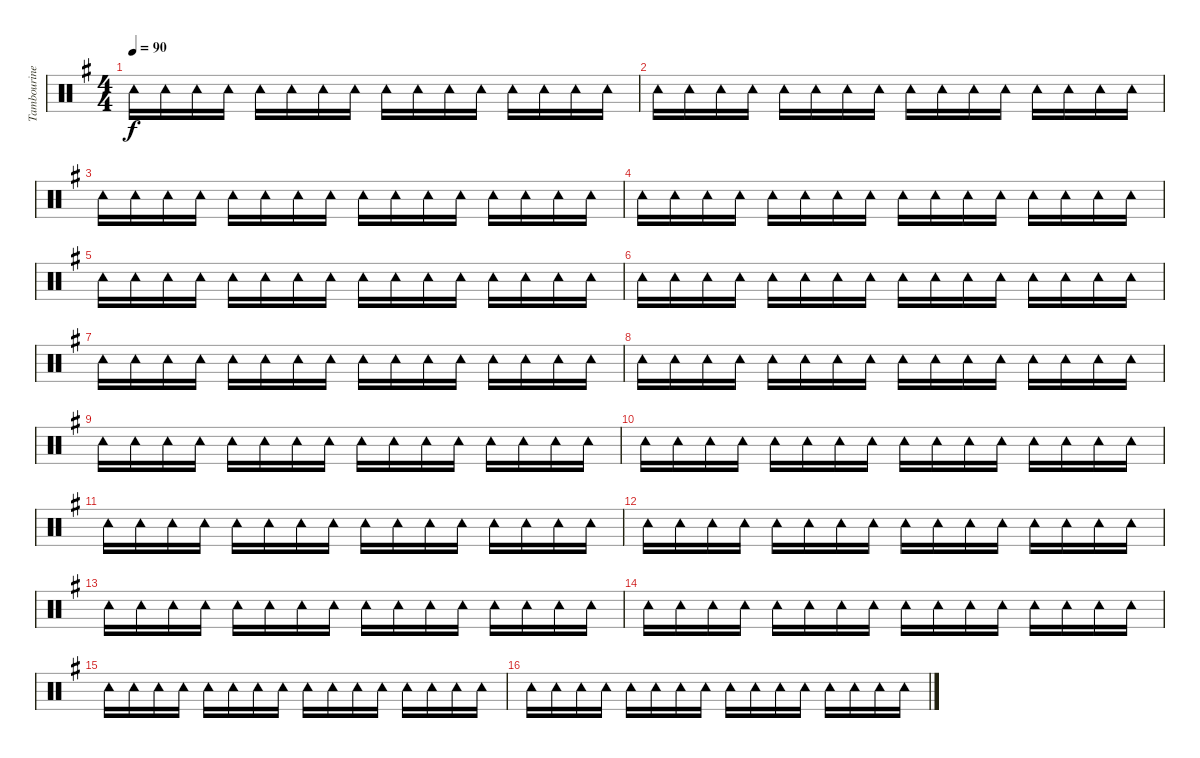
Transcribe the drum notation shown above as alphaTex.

\track ("Tambourine" "Tambourine") {instrument percussion}
\staff {score}
\articulation defaults
\ts (4 4)
\tempo 90
\clef neutral
\ks g "Tambourine (hit)".16{dy f} "Tambourine (hit)".16 "Tambourine (hit)".16 "Tambourine (hit)".16 "Tambourine (hit)".16 "Tambourine (hit)".16 "Tambourine (hit)".16 "Tambourine (hit)".16 "Tambourine (hit)".16 "Tambourine (hit)".16 "Tambourine (hit)".16 "Tambourine (hit)".16 "Tambourine (hit)".16 "Tambourine (hit)".16 "Tambourine (hit)".16 "Tambourine (hit)".16
|
"Tambourine (hit)".16 "Tambourine (hit)".16 "Tambourine (hit)".16 "Tambourine (hit)".16 "Tambourine (hit)".16 "Tambourine (hit)".16 "Tambourine (hit)".16 "Tambourine (hit)".16 "Tambourine (hit)".16 "Tambourine (hit)".16 "Tambourine (hit)".16 "Tambourine (hit)".16 "Tambourine (hit)".16 "Tambourine (hit)".16 "Tambourine (hit)".16 "Tambourine (hit)".16 |
"Tambourine (hit)".16 "Tambourine (hit)".16 "Tambourine (hit)".16 "Tambourine (hit)".16 "Tambourine (hit)".16 "Tambourine (hit)".16 "Tambourine (hit)".16 "Tambourine (hit)".16 "Tambourine (hit)".16 "Tambourine (hit)".16 "Tambourine (hit)".16 "Tambourine (hit)".16 "Tambourine (hit)".16 "Tambourine (hit)".16 "Tambourine (hit)".16 "Tambourine (hit)".16 |
"Tambourine (hit)".16 "Tambourine (hit)".16 "Tambourine (hit)".16 "Tambourine (hit)".16 "Tambourine (hit)".16 "Tambourine (hit)".16 "Tambourine (hit)".16 "Tambourine (hit)".16 "Tambourine (hit)".16 "Tambourine (hit)".16 "Tambourine (hit)".16 "Tambourine (hit)".16 "Tambourine (hit)".16 "Tambourine (hit)".16 "Tambourine (hit)".16 "Tambourine (hit)".16 |
"Tambourine (hit)".16 "Tambourine (hit)".16 "Tambourine (hit)".16 "Tambourine (hit)".16 "Tambourine (hit)".16 "Tambourine (hit)".16 "Tambourine (hit)".16 "Tambourine (hit)".16 "Tambourine (hit)".16 "Tambourine (hit)".16 "Tambourine (hit)".16 "Tambourine (hit)".16 "Tambourine (hit)".16 "Tambourine (hit)".16 "Tambourine (hit)".16 "Tambourine (hit)".16 |
"Tambourine (hit)".16 "Tambourine (hit)".16 "Tambourine (hit)".16 "Tambourine (hit)".16 "Tambourine (hit)".16 "Tambourine (hit)".16 "Tambourine (hit)".16 "Tambourine (hit)".16 "Tambourine (hit)".16 "Tambourine (hit)".16 "Tambourine (hit)".16 "Tambourine (hit)".16 "Tambourine (hit)".16 "Tambourine (hit)".16 "Tambourine (hit)".16 "Tambourine (hit)".16 |
"Tambourine (hit)".16 "Tambourine (hit)".16 "Tambourine (hit)".16 "Tambourine (hit)".16 "Tambourine (hit)".16 "Tambourine (hit)".16 "Tambourine (hit)".16 "Tambourine (hit)".16 "Tambourine (hit)".16 "Tambourine (hit)".16 "Tambourine (hit)".16 "Tambourine (hit)".16 "Tambourine (hit)".16 "Tambourine (hit)".16 "Tambourine (hit)".16 "Tambourine (hit)".16 |
"Tambourine (hit)".16 "Tambourine (hit)".16 "Tambourine (hit)".16 "Tambourine (hit)".16 "Tambourine (hit)".16 "Tambourine (hit)".16 "Tambourine (hit)".16 "Tambourine (hit)".16 "Tambourine (hit)".16 "Tambourine (hit)".16 "Tambourine (hit)".16 "Tambourine (hit)".16 "Tambourine (hit)".16 "Tambourine (hit)".16 "Tambourine (hit)".16 "Tambourine (hit)".16 |
"Tambourine (hit)".16 "Tambourine (hit)".16 "Tambourine (hit)".16 "Tambourine (hit)".16 "Tambourine (hit)".16 "Tambourine (hit)".16 "Tambourine (hit)".16 "Tambourine (hit)".16 "Tambourine (hit)".16 "Tambourine (hit)".16 "Tambourine (hit)".16 "Tambourine (hit)".16 "Tambourine (hit)".16 "Tambourine (hit)".16 "Tambourine (hit)".16 "Tambourine (hit)".16 |
"Tambourine (hit)".16 "Tambourine (hit)".16 "Tambourine (hit)".16 "Tambourine (hit)".16 "Tambourine (hit)".16 "Tambourine (hit)".16 "Tambourine (hit)".16 "Tambourine (hit)".16 "Tambourine (hit)".16 "Tambourine (hit)".16 "Tambourine (hit)".16 "Tambourine (hit)".16 "Tambourine (hit)".16 "Tambourine (hit)".16 "Tambourine (hit)".16 "Tambourine (hit)".16 |
"Tambourine (hit)".16 "Tambourine (hit)".16 "Tambourine (hit)".16 "Tambourine (hit)".16 "Tambourine (hit)".16 "Tambourine (hit)".16 "Tambourine (hit)".16 "Tambourine (hit)".16 "Tambourine (hit)".16 "Tambourine (hit)".16 "Tambourine (hit)".16 "Tambourine (hit)".16 "Tambourine (hit)".16 "Tambourine (hit)".16 "Tambourine (hit)".16 "Tambourine (hit)".16 |
"Tambourine (hit)".16 "Tambourine (hit)".16 "Tambourine (hit)".16 "Tambourine (hit)".16 "Tambourine (hit)".16 "Tambourine (hit)".16 "Tambourine (hit)".16 "Tambourine (hit)".16 "Tambourine (hit)".16 "Tambourine (hit)".16 "Tambourine (hit)".16 "Tambourine (hit)".16 "Tambourine (hit)".16 "Tambourine (hit)".16 "Tambourine (hit)".16 "Tambourine (hit)".16 |
"Tambourine (hit)".16 "Tambourine (hit)".16 "Tambourine (hit)".16 "Tambourine (hit)".16 "Tambourine (hit)".16 "Tambourine (hit)".16 "Tambourine (hit)".16 "Tambourine (hit)".16 "Tambourine (hit)".16 "Tambourine (hit)".16 "Tambourine (hit)".16 "Tambourine (hit)".16 "Tambourine (hit)".16 "Tambourine (hit)".16 "Tambourine (hit)".16 "Tambourine (hit)".16 |
"Tambourine (hit)".16 "Tambourine (hit)".16 "Tambourine (hit)".16 "Tambourine (hit)".16 "Tambourine (hit)".16 "Tambourine (hit)".16 "Tambourine (hit)".16 "Tambourine (hit)".16 "Tambourine (hit)".16 "Tambourine (hit)".16 "Tambourine (hit)".16 "Tambourine (hit)".16 "Tambourine (hit)".16 "Tambourine (hit)".16 "Tambourine (hit)".16 "Tambourine (hit)".16 |
"Tambourine (hit)".16 "Tambourine (hit)".16 "Tambourine (hit)".16 "Tambourine (hit)".16 "Tambourine (hit)".16 "Tambourine (hit)".16 "Tambourine (hit)".16 "Tambourine (hit)".16 "Tambourine (hit)".16 "Tambourine (hit)".16 "Tambourine (hit)".16 "Tambourine (hit)".16 "Tambourine (hit)".16 "Tambourine (hit)".16 "Tambourine (hit)".16 "Tambourine (hit)".16 |
"Tambourine (hit)".16 "Tambourine (hit)".16 "Tambourine (hit)".16 "Tambourine (hit)".16 "Tambourine (hit)".16 "Tambourine (hit)".16 "Tambourine (hit)".16 "Tambourine (hit)".16 "Tambourine (hit)".16 "Tambourine (hit)".16 "Tambourine (hit)".16 "Tambourine (hit)".16 "Tambourine (hit)".16 "Tambourine (hit)".16 "Tambourine (hit)".16 "Tambourine (hit)".16
